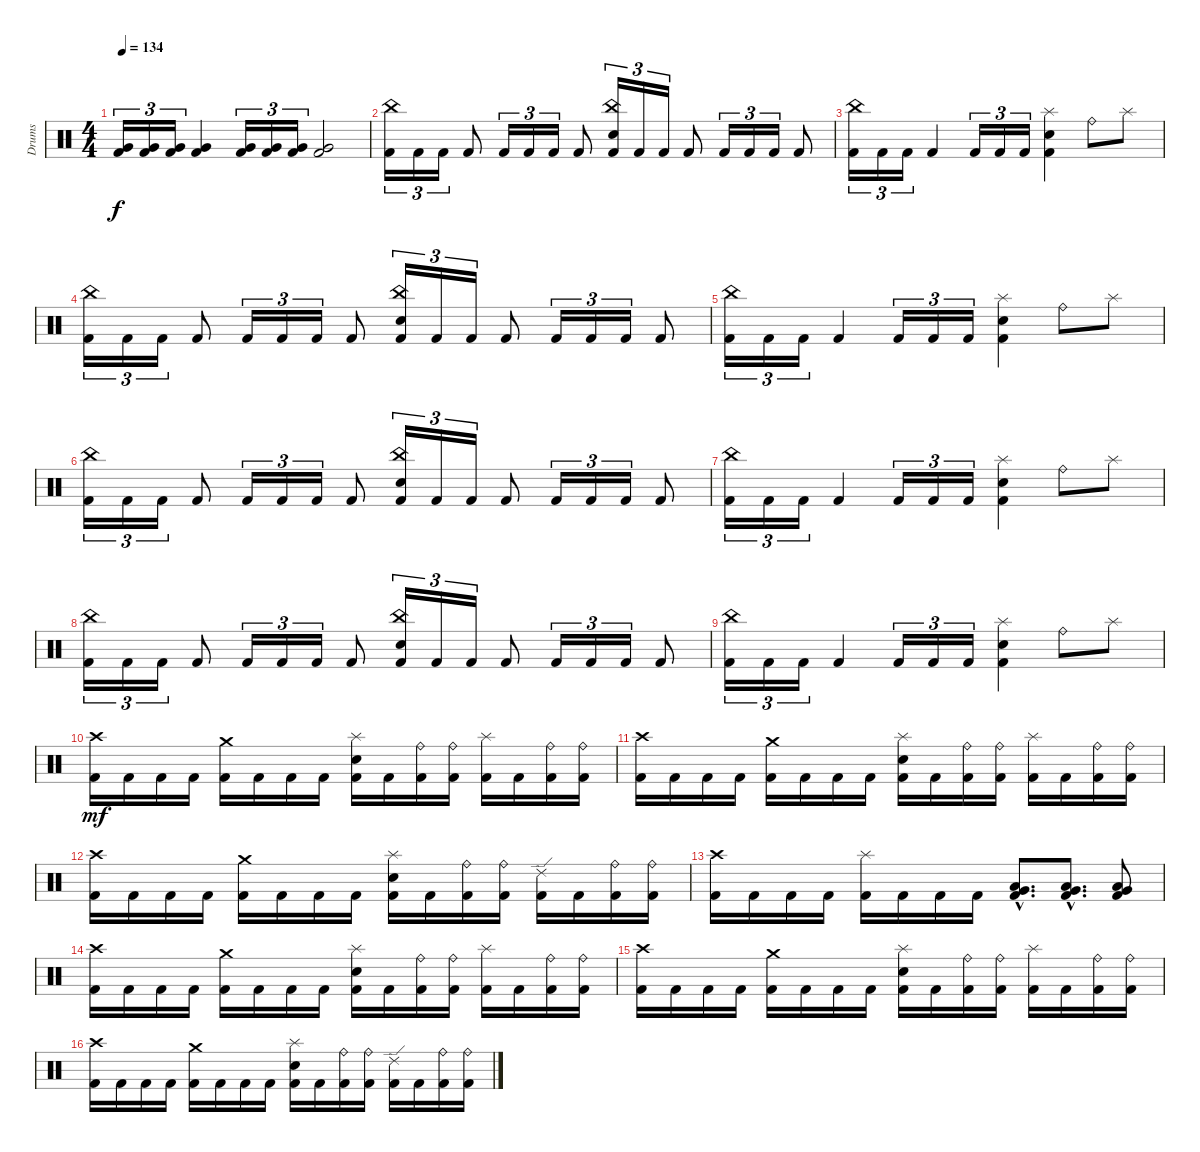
\track ("Drums" "Drums") {instrument percussion}
\staff {score}
\articulation defaults
\ts (4 4)
\tempo 134
\clef neutral
\ks c
("Very Low Tom (hit)" "Kick (hit) 2").16{tu (3 2) dy f} ("Very Low Tom (hit)" "Kick (hit) 2").16{tu (3 2)} ("Very Low Tom (hit)" "Kick (hit) 2").16{tu (3 2)} ("Very Low Tom (hit)" "Kick (hit) 2").4 ("Very Low Tom (hit)" "Kick (hit) 2").16{tu (3 2)} ("Very Low Tom (hit)" "Kick (hit) 2").16{tu (3 2)} ("Very Low Tom (hit)" "Kick (hit) 2").16{tu (3 2)} ("Very Low Tom (hit)" "Kick (hit) 2").2 |
("China (hit)" "Kick (hit) 2").16{tu (3 2)} "Kick (hit) 2".16{tu (3 2)} "Kick (hit) 2".16{tu (3 2)} "Kick (hit) 2".8 "Kick (hit) 2".16{tu (3 2)} "Kick (hit) 2".16{tu (3 2)} "Kick (hit) 2".16{tu (3 2)} "Kick (hit) 2".8 ("China (hit)" "Electric Snare (hit)" "Kick (hit) 2").16{tu (3 2)} "Kick (hit) 2".16{tu (3 2)} "Kick (hit) 2".16{tu (3 2)} "Kick (hit) 2".8 "Kick (hit) 2".16{tu (3 2)} "Kick (hit) 2".16{tu (3 2)} "Kick (hit) 2".16{tu (3 2)} "Kick (hit) 2".8 |
("China (hit)" "Kick (hit) 2").16{tu (3 2)} "Kick (hit) 2".16{tu (3 2)} "Kick (hit) 2".16{tu (3 2)} "Kick (hit) 2".4 "Kick (hit) 2".16{tu (3 2)} "Kick (hit) 2".16{tu (3 2)} "Kick (hit) 2".16{tu (3 2)} ("Splash (hit)" "Electric Snare (hit)" "Kick (hit) 2").4 "Ride (bell)".8 "Splash (hit)".8 |
("China (hit)" "Kick (hit) 2").16{tu (3 2)} "Kick (hit) 2".16{tu (3 2)} "Kick (hit) 2".16{tu (3 2)} "Kick (hit) 2".8 "Kick (hit) 2".16{tu (3 2)} "Kick (hit) 2".16{tu (3 2)} "Kick (hit) 2".16{tu (3 2)} "Kick (hit) 2".8 ("China (hit)" "Electric Snare (hit)" "Kick (hit) 2").16{tu (3 2)} "Kick (hit) 2".16{tu (3 2)} "Kick (hit) 2".16{tu (3 2)} "Kick (hit) 2".8 "Kick (hit) 2".16{tu (3 2)} "Kick (hit) 2".16{tu (3 2)} "Kick (hit) 2".16{tu (3 2)} "Kick (hit) 2".8 |
("China (hit)" "Kick (hit) 2").16{tu (3 2)} "Kick (hit) 2".16{tu (3 2)} "Kick (hit) 2".16{tu (3 2)} "Kick (hit) 2".4 "Kick (hit) 2".16{tu (3 2)} "Kick (hit) 2".16{tu (3 2)} "Kick (hit) 2".16{tu (3 2)} ("Splash (hit)" "Electric Snare (hit)" "Kick (hit) 2").4 "Ride (bell)".8 "Splash (hit)".8 |
("China (hit)" "Kick (hit) 2").16{tu (3 2)} "Kick (hit) 2".16{tu (3 2)} "Kick (hit) 2".16{tu (3 2)} "Kick (hit) 2".8 "Kick (hit) 2".16{tu (3 2)} "Kick (hit) 2".16{tu (3 2)} "Kick (hit) 2".16{tu (3 2)} "Kick (hit) 2".8 ("China (hit)" "Electric Snare (hit)" "Kick (hit) 2").16{tu (3 2)} "Kick (hit) 2".16{tu (3 2)} "Kick (hit) 2".16{tu (3 2)} "Kick (hit) 2".8 "Kick (hit) 2".16{tu (3 2)} "Kick (hit) 2".16{tu (3 2)} "Kick (hit) 2".16{tu (3 2)} "Kick (hit) 2".8 |
("China (hit)" "Kick (hit) 2").16{tu (3 2)} "Kick (hit) 2".16{tu (3 2)} "Kick (hit) 2".16{tu (3 2)} "Kick (hit) 2".4 "Kick (hit) 2".16{tu (3 2)} "Kick (hit) 2".16{tu (3 2)} "Kick (hit) 2".16{tu (3 2)} ("Splash (hit)" "Electric Snare (hit)" "Kick (hit) 2").4 "Ride (bell)".8 "Splash (hit)".8 |
("China (hit)" "Kick (hit) 2").16{tu (3 2)} "Kick (hit) 2".16{tu (3 2)} "Kick (hit) 2".16{tu (3 2)} "Kick (hit) 2".8 "Kick (hit) 2".16{tu (3 2)} "Kick (hit) 2".16{tu (3 2)} "Kick (hit) 2".16{tu (3 2)} "Kick (hit) 2".8 ("China (hit)" "Electric Snare (hit)" "Kick (hit) 2").16{tu (3 2)} "Kick (hit) 2".16{tu (3 2)} "Kick (hit) 2".16{tu (3 2)} "Kick (hit) 2".8 "Kick (hit) 2".16{tu (3 2)} "Kick (hit) 2".16{tu (3 2)} "Kick (hit) 2".16{tu (3 2)} "Kick (hit) 2".8 |
("China (hit)" "Kick (hit) 2").16{tu (3 2)} "Kick (hit) 2".16{tu (3 2)} "Kick (hit) 2".16{tu (3 2)} "Kick (hit) 2".4 "Kick (hit) 2".16{tu (3 2)} "Kick (hit) 2".16{tu (3 2)} "Kick (hit) 2".16{tu (3 2)} ("Splash (hit)" "Electric Snare (hit)" "Kick (hit) 2").4 "Ride (bell)".8 "Splash (hit)".8 |
\section ("" "")
("Crash high (hit)" "Kick (hit) 2").16{dy mf} "Kick (hit) 2".16 "Kick (hit) 2".16 "Kick (hit) 2".16 ("Crash medium (hit)" "Kick (hit) 2").16 "Kick (hit) 2".16 "Kick (hit) 2".16 "Kick (hit) 2".16 ("Splash (hit)" "Electric Snare (hit)" "Kick (hit) 2").16 "Kick (hit) 2".16 ("Ride (bell)" "Kick (hit) 2").16 ("Ride (bell)" "Kick (hit) 2").16 ("Splash (hit)" "Kick (hit) 2").16 "Kick (hit) 2".16 ("Ride (bell)" "Kick (hit) 2").16 ("Ride (bell)" "Kick (hit) 2").16 |
("Crash high (hit)" "Kick (hit) 2").16 "Kick (hit) 2".16 "Kick (hit) 2".16 "Kick (hit) 2".16 ("Crash medium (hit)" "Kick (hit) 2").16 "Kick (hit) 2".16 "Kick (hit) 2".16 "Kick (hit) 2".16 ("Splash (hit)" "Electric Snare (hit)" "Kick (hit) 2").16 "Kick (hit) 2".16 ("Ride (bell)" "Kick (hit) 2").16 ("Ride (bell)" "Kick (hit) 2").16 ("Splash (hit)" "Kick (hit) 2").16 "Kick (hit) 2".16 ("Ride (bell)" "Kick (hit) 2").16 ("Ride (bell)" "Kick (hit) 2").16 |
("Crash high (hit)" "Kick (hit) 2").16 "Kick (hit) 2".16 "Kick (hit) 2".16 "Kick (hit) 2".16 ("Crash medium (hit)" "Kick (hit) 2").16 "Kick (hit) 2".16 "Kick (hit) 2".16 "Kick (hit) 2".16 ("Splash (hit)" "Electric Snare (hit)" "Kick (hit) 2").16 "Kick (hit) 2".16 ("Ride (bell)" "Kick (hit) 2").16 ("Ride (bell)" "Kick (hit) 2").16 ("Ride (edge) 2" "Kick (hit) 2").16 "Kick (hit) 2".16 ("Ride (bell)" "Kick (hit) 2").16 ("Ride (bell)" "Kick (hit) 2").16 |
("Crash high (hit)" "Kick (hit) 2").16 "Kick (hit) 2".16 "Kick (hit) 2".16 "Kick (hit) 2".16 ("Splash (hit)" "Kick (hit) 2").16 "Kick (hit) 2".16 "Kick (hit) 2".16 "Kick (hit) 2".16 ("Low Tom (hit)"{hac} "Very Low Tom (hit)"{hac} "Kick (hit) 2"{hac}).8{d} ("Low Tom (hit)"{hac} "Very Low Tom (hit)"{hac} "Kick (hit) 2"{hac}).8{d} ("Low Tom (hit)" "Very Low Tom (hit)" "Kick (hit) 2").8 |
("Crash high (hit)" "Kick (hit) 2").16 "Kick (hit) 2".16 "Kick (hit) 2".16 "Kick (hit) 2".16 ("Crash medium (hit)" "Kick (hit) 2").16 "Kick (hit) 2".16 "Kick (hit) 2".16 "Kick (hit) 2".16 ("Splash (hit)" "Electric Snare (hit)" "Kick (hit) 2").16 "Kick (hit) 2".16 ("Ride (bell)" "Kick (hit) 2").16 ("Ride (bell)" "Kick (hit) 2").16 ("Splash (hit)" "Kick (hit) 2").16 "Kick (hit) 2".16 ("Ride (bell)" "Kick (hit) 2").16 ("Ride (bell)" "Kick (hit) 2").16 |
("Crash high (hit)" "Kick (hit) 2").16 "Kick (hit) 2".16 "Kick (hit) 2".16 "Kick (hit) 2".16 ("Crash medium (hit)" "Kick (hit) 2").16 "Kick (hit) 2".16 "Kick (hit) 2".16 "Kick (hit) 2".16 ("Splash (hit)" "Electric Snare (hit)" "Kick (hit) 2").16 "Kick (hit) 2".16 ("Ride (bell)" "Kick (hit) 2").16 ("Ride (bell)" "Kick (hit) 2").16 ("Splash (hit)" "Kick (hit) 2").16 "Kick (hit) 2".16 ("Ride (bell)" "Kick (hit) 2").16 ("Ride (bell)" "Kick (hit) 2").16 |
("Crash high (hit)" "Kick (hit) 2").16 "Kick (hit) 2".16 "Kick (hit) 2".16 "Kick (hit) 2".16 ("Crash medium (hit)" "Kick (hit) 2").16 "Kick (hit) 2".16 "Kick (hit) 2".16 "Kick (hit) 2".16 ("Splash (hit)" "Electric Snare (hit)" "Kick (hit) 2").16 "Kick (hit) 2".16 ("Ride (bell)" "Kick (hit) 2").16 ("Ride (bell)" "Kick (hit) 2").16 ("Ride (edge) 2" "Kick (hit) 2").16 "Kick (hit) 2".16 ("Ride (bell)" "Kick (hit) 2").16 ("Ride (bell)" "Kick (hit) 2").16
